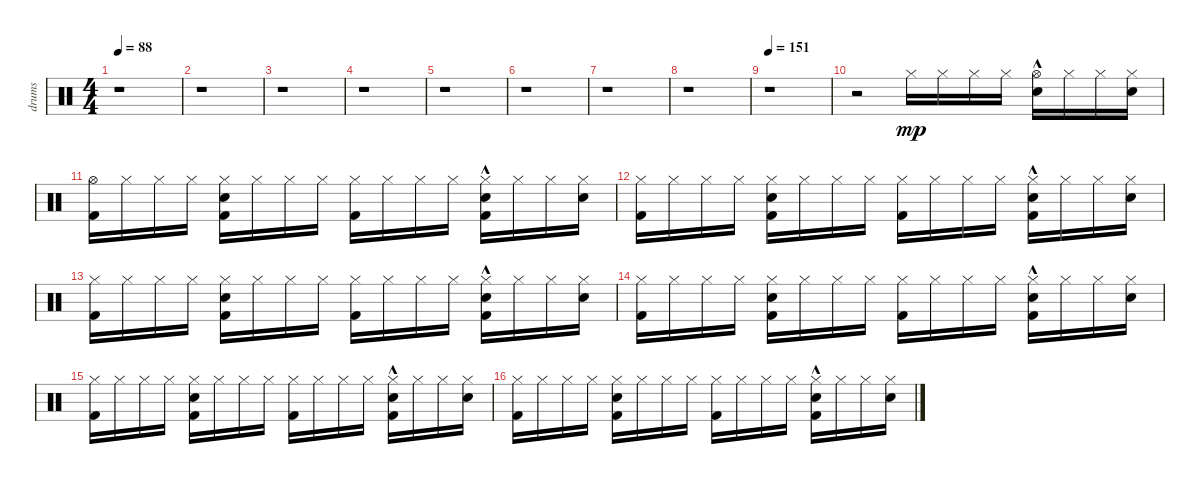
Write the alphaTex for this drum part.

\track ("drums" "drums") {instrument percussion}
\staff {score}
\articulation defaults
\ts (4 4)
\tempo 88
\clef neutral
\ks c
r.1{dy mp} |
r.1 |
r.1 |
r.1 |
r.1 |
r.1 |
r.1 |
r.1 |
\tempo 151
r.1 |
r.2 "Hi-Hat (closed)".16 "Hi-Hat (closed)".16 "Hi-Hat (closed)".16 "Hi-Hat (closed)".16 ("Hi-Hat (open)" "Snare (hit) 2"{hac}).16 "Hi-Hat (closed)".16 "Hi-Hat (closed)".16 ("Hi-Hat (closed)" "Snare (hit) 2").16 |
("Hi-Hat (open)" "Kick (hit) 2").16 "Hi-Hat (closed)".16 "Hi-Hat (closed)".16 "Hi-Hat (closed)".16 ("Hi-Hat (closed)" "Kick (hit) 2" "Snare (hit) 2").16 "Hi-Hat (closed)".16 "Hi-Hat (closed)".16 "Hi-Hat (closed)".16 ("Hi-Hat (closed)" "Kick (hit) 2").16 "Hi-Hat (closed)".16 "Hi-Hat (closed)".16 "Hi-Hat (closed)".16 ("Hi-Hat (closed)" "Kick (hit) 2"{hac} "Snare (hit) 2"{hac}).16 "Hi-Hat (closed)".16 "Hi-Hat (closed)".16 ("Hi-Hat (closed)" "Snare (hit) 2").16 |
("Hi-Hat (closed)" "Kick (hit) 2").16 "Hi-Hat (closed)".16 "Hi-Hat (closed)".16 "Hi-Hat (closed)".16 ("Hi-Hat (closed)" "Kick (hit) 2" "Snare (hit) 2").16 "Hi-Hat (closed)".16 "Hi-Hat (closed)".16 "Hi-Hat (closed)".16 ("Hi-Hat (closed)" "Kick (hit) 2").16 "Hi-Hat (closed)".16 "Hi-Hat (closed)".16 "Hi-Hat (closed)".16 ("Hi-Hat (closed)" "Kick (hit) 2"{hac} "Snare (hit) 2"{hac}).16 "Hi-Hat (closed)".16 "Hi-Hat (closed)".16 ("Hi-Hat (closed)" "Snare (hit) 2").16 |
("Hi-Hat (closed)" "Kick (hit) 2").16 "Hi-Hat (closed)".16 "Hi-Hat (closed)".16 "Hi-Hat (closed)".16 ("Hi-Hat (closed)" "Kick (hit) 2" "Snare (hit) 2").16 "Hi-Hat (closed)".16 "Hi-Hat (closed)".16 "Hi-Hat (closed)".16 ("Hi-Hat (closed)" "Kick (hit) 2").16 "Hi-Hat (closed)".16 "Hi-Hat (closed)".16 "Hi-Hat (closed)".16 ("Hi-Hat (closed)" "Kick (hit) 2"{hac} "Snare (hit) 2"{hac}).16 "Hi-Hat (closed)".16 "Hi-Hat (closed)".16 ("Hi-Hat (closed)" "Snare (hit) 2").16 |
("Hi-Hat (closed)" "Kick (hit) 2").16 "Hi-Hat (closed)".16 "Hi-Hat (closed)".16 "Hi-Hat (closed)".16 ("Hi-Hat (closed)" "Kick (hit) 2" "Snare (hit) 2").16 "Hi-Hat (closed)".16 "Hi-Hat (closed)".16 "Hi-Hat (closed)".16 ("Hi-Hat (closed)" "Kick (hit) 2").16 "Hi-Hat (closed)".16 "Hi-Hat (closed)".16 "Hi-Hat (closed)".16 ("Hi-Hat (closed)" "Kick (hit) 2"{hac} "Snare (hit) 2"{hac}).16 "Hi-Hat (closed)".16 "Hi-Hat (closed)".16 ("Hi-Hat (closed)" "Snare (hit) 2").16 |
("Hi-Hat (closed)" "Kick (hit) 2").16 "Hi-Hat (closed)".16 "Hi-Hat (closed)".16 "Hi-Hat (closed)".16 ("Hi-Hat (closed)" "Kick (hit) 2" "Snare (hit) 2").16 "Hi-Hat (closed)".16 "Hi-Hat (closed)".16 "Hi-Hat (closed)".16 ("Hi-Hat (closed)" "Kick (hit) 2").16 "Hi-Hat (closed)".16 "Hi-Hat (closed)".16 "Hi-Hat (closed)".16 ("Hi-Hat (closed)" "Kick (hit) 2"{hac} "Snare (hit) 2"{hac}).16 "Hi-Hat (closed)".16 "Hi-Hat (closed)".16 ("Hi-Hat (closed)" "Snare (hit) 2").16 |
("Hi-Hat (closed)" "Kick (hit) 2").16 "Hi-Hat (closed)".16 "Hi-Hat (closed)".16 "Hi-Hat (closed)".16 ("Hi-Hat (closed)" "Kick (hit) 2" "Snare (hit) 2").16 "Hi-Hat (closed)".16 "Hi-Hat (closed)".16 "Hi-Hat (closed)".16 ("Hi-Hat (closed)" "Kick (hit) 2").16 "Hi-Hat (closed)".16 "Hi-Hat (closed)".16 "Hi-Hat (closed)".16 ("Hi-Hat (closed)" "Kick (hit) 2"{hac} "Snare (hit) 2"{hac}).16 "Hi-Hat (closed)".16 "Hi-Hat (closed)".16 ("Hi-Hat (closed)" "Snare (hit) 2").16
